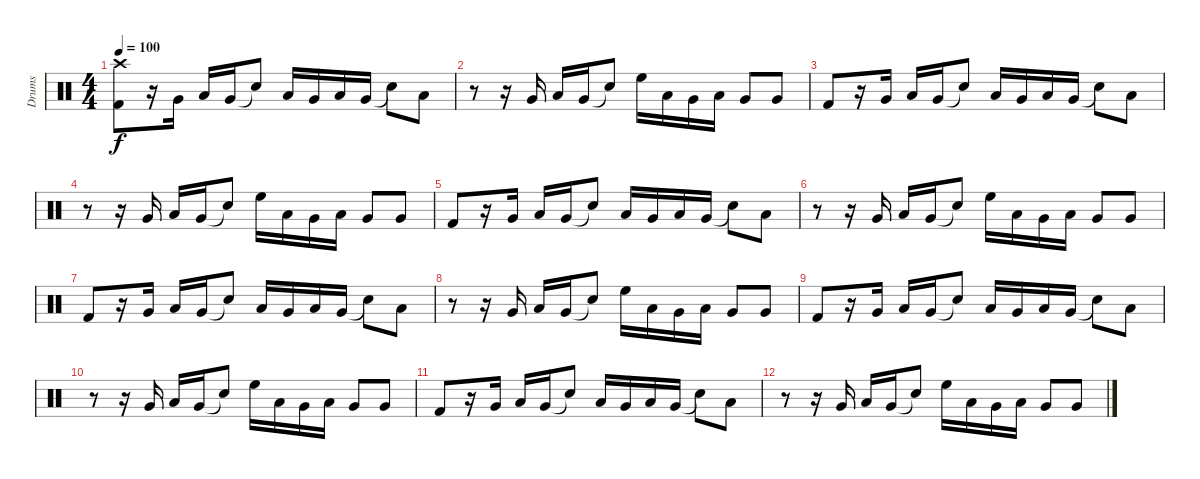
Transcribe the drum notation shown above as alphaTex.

\track ("Drums" "Drums") {instrument percussion}
\staff {score}
\articulation defaults
\ts (4 4)
\tempo 100
\clef neutral
\ks c
("Crash high (hit)" "Kick (hit) 2").8{dy f} r.16 "Very Low Tom (hit)".16 "Low Tom (hit)".16 "Very Low Tom (hit)".16 "Snare (hit)"{t}.8 "Low Tom (hit)".16 "Very Low Tom (hit)".16 "Low Tom (hit)".16 "Very Low Tom (hit)".16 "Snare (hit)"{t}.8 "Low Tom (hit)".8 |
r.8 r.16 "Very Low Tom (hit)".16 "Low Tom (hit)".16 "Very Low Tom (hit)".16 "Snare (hit)"{t}.8 "High Floor Tom (hit)".16 "Low Tom (hit)".16 "Very Low Tom (hit)".16 "Low Tom (hit)".16 "Very Low Tom (hit)".8 "Very Low Tom (hit)".8 |
"Kick (hit) 2".8 r.16 "Very Low Tom (hit)".16 "Low Tom (hit)".16 "Very Low Tom (hit)".16 "Snare (hit)"{t}.8 "Low Tom (hit)".16 "Very Low Tom (hit)".16 "Low Tom (hit)".16 "Very Low Tom (hit)".16 "Snare (hit)"{t}.8 "Low Tom (hit)".8 |
r.8 r.16 "Very Low Tom (hit)".16 "Low Tom (hit)".16 "Very Low Tom (hit)".16 "Snare (hit)"{t}.8 "High Floor Tom (hit)".16 "Low Tom (hit)".16 "Very Low Tom (hit)".16 "Low Tom (hit)".16 "Very Low Tom (hit)".8 "Very Low Tom (hit)".8 |
"Kick (hit) 2".8 r.16 "Very Low Tom (hit)".16 "Low Tom (hit)".16 "Very Low Tom (hit)".16 "Snare (hit)"{t}.8 "Low Tom (hit)".16 "Very Low Tom (hit)".16 "Low Tom (hit)".16 "Very Low Tom (hit)".16 "Snare (hit)"{t}.8 "Low Tom (hit)".8 |
r.8{volume 14} r.16 "Very Low Tom (hit)".16 "Low Tom (hit)".16 "Very Low Tom (hit)".16 "Snare (hit)"{t}.8 "High Floor Tom (hit)".16 "Low Tom (hit)".16 "Very Low Tom (hit)".16 "Low Tom (hit)".16 "Very Low Tom (hit)".8 "Very Low Tom (hit)".8 |
"Kick (hit) 2".8{volume 12} r.16 "Very Low Tom (hit)".16 "Low Tom (hit)".16 "Very Low Tom (hit)".16 "Snare (hit)"{t}.8 "Low Tom (hit)".16 "Very Low Tom (hit)".16 "Low Tom (hit)".16 "Very Low Tom (hit)".16 "Snare (hit)"{t}.8 "Low Tom (hit)".8 |
r.8{volume 10} r.16 "Very Low Tom (hit)".16 "Low Tom (hit)".16 "Very Low Tom (hit)".16 "Snare (hit)"{t}.8 "High Floor Tom (hit)".16 "Low Tom (hit)".16 "Very Low Tom (hit)".16 "Low Tom (hit)".16 "Very Low Tom (hit)".8 "Very Low Tom (hit)".8 |
"Kick (hit) 2".8{volume 8} r.16 "Very Low Tom (hit)".16 "Low Tom (hit)".16 "Very Low Tom (hit)".16 "Snare (hit)"{t}.8 "Low Tom (hit)".16 "Very Low Tom (hit)".16 "Low Tom (hit)".16 "Very Low Tom (hit)".16 "Snare (hit)"{t}.8 "Low Tom (hit)".8 |
r.8{volume 6} r.16 "Very Low Tom (hit)".16 "Low Tom (hit)".16 "Very Low Tom (hit)".16 "Snare (hit)"{t}.8 "High Floor Tom (hit)".16 "Low Tom (hit)".16 "Very Low Tom (hit)".16 "Low Tom (hit)".16 "Very Low Tom (hit)".8 "Very Low Tom (hit)".8 |
"Kick (hit) 2".8{volume 4} r.16 "Very Low Tom (hit)".16 "Low Tom (hit)".16 "Very Low Tom (hit)".16 "Snare (hit)"{t}.8 "Low Tom (hit)".16 "Very Low Tom (hit)".16 "Low Tom (hit)".16 "Very Low Tom (hit)".16 "Snare (hit)"{t}.8 "Low Tom (hit)".8 |
r.8{volume 2} r.16 "Very Low Tom (hit)".16 "Low Tom (hit)".16 "Very Low Tom (hit)".16 "Snare (hit)"{t}.8 "High Floor Tom (hit)".16 "Low Tom (hit)".16 "Very Low Tom (hit)".16 "Low Tom (hit)".16 "Very Low Tom (hit)".8 "Very Low Tom (hit)".8
